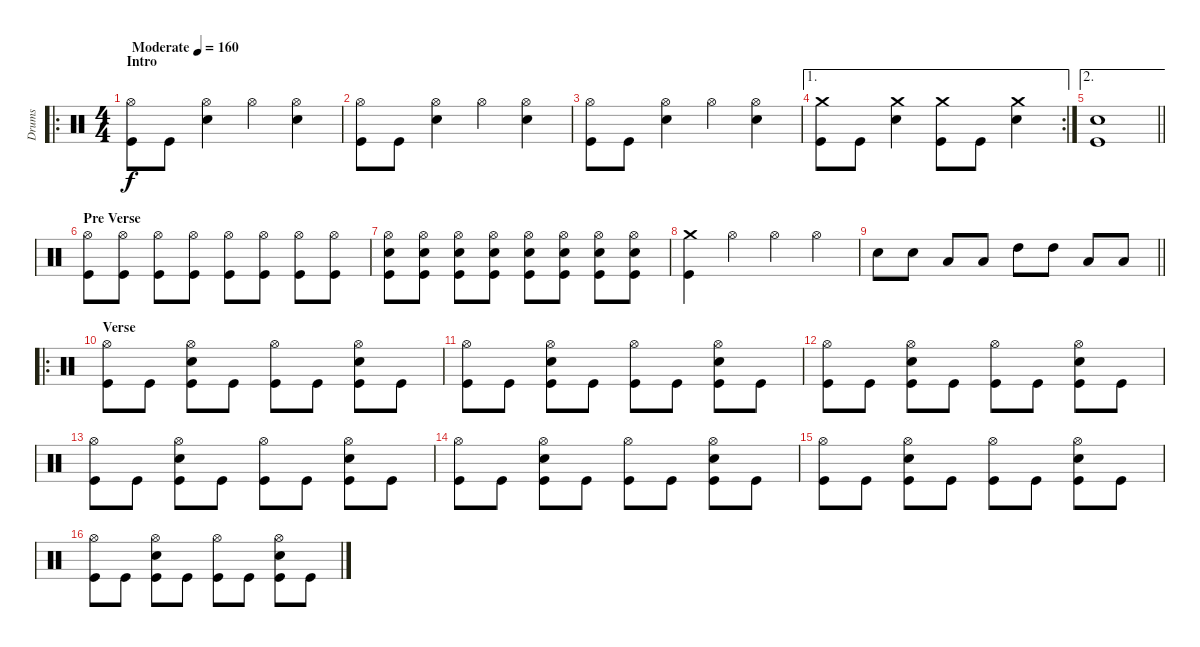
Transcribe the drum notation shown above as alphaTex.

\track ("Drums" "Drums") {instrument percussion}
\staff {score}
\articulation defaults
\ro
\ts (4 4)
\section ("" "Intro")
\tempo (160 "Moderate")
\clef neutral
\ks c
("Hi-Hat (open)" "Kick (hit)").8{dy f} "Kick (hit)".8 ("Hi-Hat (open)" "Snare (hit) 2").4 "Hi-Hat (open)".4 ("Hi-Hat (open)" "Snare (hit) 2").4 |
("Hi-Hat (open)" "Kick (hit)").8 "Kick (hit)".8 ("Hi-Hat (open)" "Snare (hit) 2").4 "Hi-Hat (open)".4 ("Hi-Hat (open)" "Snare (hit) 2").4 |
("Hi-Hat (open)" "Kick (hit)").8 "Kick (hit)".8 ("Hi-Hat (open)" "Snare (hit) 2").4 "Hi-Hat (open)".4 ("Hi-Hat (open)" "Snare (hit) 2").4 |
\ae 1
\rc 2
("Crash medium (hit)" "Kick (hit)").8 "Kick (hit)".8 ("Crash medium (hit)" "Snare (hit) 2").4 ("Crash medium (hit)" "Kick (hit)").8 "Kick (hit)".8 ("Crash medium (hit)" "Snare (hit) 2").4 |
\ae 2
\barLineRight lightlight
("Snare (hit) 2" "Kick (hit)").1 |
\section ("" "Pre Verse")
("Hi-Hat (open)" "Kick (hit)").8 ("Hi-Hat (open)" "Kick (hit)").8 ("Hi-Hat (open)" "Kick (hit)").8 ("Hi-Hat (open)" "Kick (hit)").8 ("Hi-Hat (open)" "Kick (hit)").8 ("Hi-Hat (open)" "Kick (hit)").8 ("Hi-Hat (open)" "Kick (hit)").8 ("Hi-Hat (open)" "Kick (hit)").8 |
("Hi-Hat (open)" "Snare (hit) 2" "Kick (hit)").8 ("Hi-Hat (open)" "Snare (hit) 2" "Kick (hit)").8 ("Hi-Hat (open)" "Snare (hit) 2" "Kick (hit)").8 ("Hi-Hat (open)" "Snare (hit) 2" "Kick (hit)").8 ("Hi-Hat (open)" "Snare (hit) 2" "Kick (hit)").8 ("Hi-Hat (open)" "Snare (hit) 2" "Kick (hit)").8 ("Hi-Hat (open)" "Snare (hit) 2" "Kick (hit)").8 ("Hi-Hat (open)" "Snare (hit) 2" "Kick (hit)").8 |
("Crash medium (hit)" "Kick (hit)").4 "Hi-Hat (open)".4 "Hi-Hat (open)".4 "Hi-Hat (open)".4 |
\barLineRight lightlight "Snare (hit) 2".8 "Snare (hit) 2".8 "Low Floor Tom (hit)".8 "Low Floor Tom (hit)".8 "High Tom (hit)".8 "High Tom (hit)".8 "Low Tom (hit)".8 "Low Tom (hit)".8
|
\ro
\section ("" "Verse")
("Hi-Hat (open)" "Kick (hit)").8 "Kick (hit)".8 ("Hi-Hat (open)" "Snare (hit) 2" "Kick (hit)").8 "Kick (hit)".8 ("Hi-Hat (open)" "Kick (hit)").8 "Kick (hit)".8 ("Hi-Hat (open)" "Snare (hit) 2" "Kick (hit)").8 "Kick (hit)".8 |
("Hi-Hat (open)" "Kick (hit)").8 "Kick (hit)".8 ("Hi-Hat (open)" "Snare (hit) 2" "Kick (hit)").8 "Kick (hit)".8 ("Hi-Hat (open)" "Kick (hit)").8 "Kick (hit)".8 ("Hi-Hat (open)" "Snare (hit) 2" "Kick (hit)").8 "Kick (hit)".8 |
("Hi-Hat (open)" "Kick (hit)").8 "Kick (hit)".8 ("Hi-Hat (open)" "Snare (hit) 2" "Kick (hit)").8 "Kick (hit)".8 ("Hi-Hat (open)" "Kick (hit)").8 "Kick (hit)".8 ("Hi-Hat (open)" "Snare (hit) 2" "Kick (hit)").8 "Kick (hit)".8 |
("Hi-Hat (open)" "Kick (hit)").8 "Kick (hit)".8 ("Hi-Hat (open)" "Snare (hit) 2" "Kick (hit)").8 "Kick (hit)".8 ("Hi-Hat (open)" "Kick (hit)").8 "Kick (hit)".8 ("Hi-Hat (open)" "Snare (hit) 2" "Kick (hit)").8 "Kick (hit)".8 |
("Hi-Hat (open)" "Kick (hit)").8 "Kick (hit)".8 ("Hi-Hat (open)" "Snare (hit) 2" "Kick (hit)").8 "Kick (hit)".8 ("Hi-Hat (open)" "Kick (hit)").8 "Kick (hit)".8 ("Hi-Hat (open)" "Snare (hit) 2" "Kick (hit)").8 "Kick (hit)".8 |
("Hi-Hat (open)" "Kick (hit)").8 "Kick (hit)".8 ("Hi-Hat (open)" "Snare (hit) 2" "Kick (hit)").8 "Kick (hit)".8 ("Hi-Hat (open)" "Kick (hit)").8 "Kick (hit)".8 ("Hi-Hat (open)" "Snare (hit) 2" "Kick (hit)").8 "Kick (hit)".8 |
("Hi-Hat (open)" "Kick (hit)").8 "Kick (hit)".8 ("Hi-Hat (open)" "Snare (hit) 2" "Kick (hit)").8 "Kick (hit)".8 ("Hi-Hat (open)" "Kick (hit)").8 "Kick (hit)".8 ("Hi-Hat (open)" "Snare (hit) 2" "Kick (hit)").8 "Kick (hit)".8
